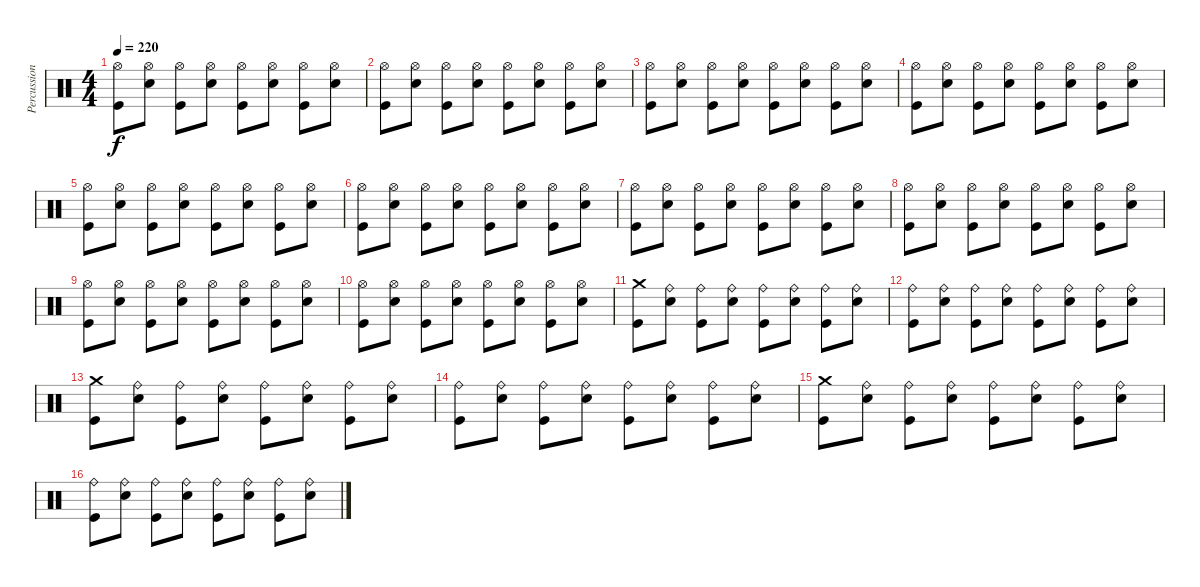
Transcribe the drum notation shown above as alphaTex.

\track ("Percussions" "Percussion") {instrument percussion}
\staff {score}
\articulation defaults
\ts (4 4)
\tempo 220
\clef neutral
\ks c
("Kick (hit)" "Hi-Hat (open)").8{dy f} ("Electric Snare (hit)" "Hi-Hat (open)").8 ("Kick (hit)" "Hi-Hat (open)").8 ("Electric Snare (hit)" "Hi-Hat (open)").8 ("Kick (hit)" "Hi-Hat (open)").8 ("Electric Snare (hit)" "Hi-Hat (open)").8 ("Kick (hit)" "Hi-Hat (open)").8 ("Electric Snare (hit)" "Hi-Hat (open)").8 |
("Kick (hit)" "Hi-Hat (open)").8 ("Electric Snare (hit)" "Hi-Hat (open)").8 ("Kick (hit)" "Hi-Hat (open)").8 ("Electric Snare (hit)" "Hi-Hat (open)").8 ("Kick (hit)" "Hi-Hat (open)").8 ("Electric Snare (hit)" "Hi-Hat (open)").8 ("Kick (hit)" "Hi-Hat (open)").8 ("Electric Snare (hit)" "Hi-Hat (open)").8 |
("Kick (hit)" "Hi-Hat (open)").8 ("Electric Snare (hit)" "Hi-Hat (open)").8 ("Kick (hit)" "Hi-Hat (open)").8 ("Electric Snare (hit)" "Hi-Hat (open)").8 ("Kick (hit)" "Hi-Hat (open)").8 ("Electric Snare (hit)" "Hi-Hat (open)").8 ("Kick (hit)" "Hi-Hat (open)").8 ("Electric Snare (hit)" "Hi-Hat (open)").8 |
("Kick (hit)" "Hi-Hat (open)").8 ("Electric Snare (hit)" "Hi-Hat (open)").8 ("Kick (hit)" "Hi-Hat (open)").8 ("Electric Snare (hit)" "Hi-Hat (open)").8 ("Kick (hit)" "Hi-Hat (open)").8 ("Electric Snare (hit)" "Hi-Hat (open)").8 ("Kick (hit)" "Hi-Hat (open)").8 ("Electric Snare (hit)" "Hi-Hat (open)").8 |
("Kick (hit)" "Hi-Hat (open)").8 ("Electric Snare (hit)" "Hi-Hat (open)").8 ("Kick (hit)" "Hi-Hat (open)").8 ("Electric Snare (hit)" "Hi-Hat (open)").8 ("Kick (hit)" "Hi-Hat (open)").8 ("Electric Snare (hit)" "Hi-Hat (open)").8 ("Kick (hit)" "Hi-Hat (open)").8 ("Electric Snare (hit)" "Hi-Hat (open)").8 |
("Kick (hit)" "Hi-Hat (open)").8 ("Electric Snare (hit)" "Hi-Hat (open)").8 ("Kick (hit)" "Hi-Hat (open)").8 ("Electric Snare (hit)" "Hi-Hat (open)").8 ("Kick (hit)" "Hi-Hat (open)").8 ("Electric Snare (hit)" "Hi-Hat (open)").8 ("Kick (hit)" "Hi-Hat (open)").8 ("Electric Snare (hit)" "Hi-Hat (open)").8 |
("Kick (hit)" "Hi-Hat (open)").8 ("Electric Snare (hit)" "Hi-Hat (open)").8 ("Kick (hit)" "Hi-Hat (open)").8 ("Electric Snare (hit)" "Hi-Hat (open)").8 ("Kick (hit)" "Hi-Hat (open)").8 ("Electric Snare (hit)" "Hi-Hat (open)").8 ("Kick (hit)" "Hi-Hat (open)").8 ("Electric Snare (hit)" "Hi-Hat (open)").8 |
("Kick (hit)" "Hi-Hat (open)").8 ("Electric Snare (hit)" "Hi-Hat (open)").8 ("Kick (hit)" "Hi-Hat (open)").8 ("Electric Snare (hit)" "Hi-Hat (open)").8 ("Kick (hit)" "Hi-Hat (open)").8 ("Electric Snare (hit)" "Hi-Hat (open)").8 ("Kick (hit)" "Hi-Hat (open)").8 ("Electric Snare (hit)" "Hi-Hat (open)").8 |
("Kick (hit)" "Hi-Hat (open)").8 ("Electric Snare (hit)" "Hi-Hat (open)").8 ("Kick (hit)" "Hi-Hat (open)").8 ("Electric Snare (hit)" "Hi-Hat (open)").8 ("Kick (hit)" "Hi-Hat (open)").8 ("Electric Snare (hit)" "Hi-Hat (open)").8 ("Kick (hit)" "Hi-Hat (open)").8 ("Electric Snare (hit)" "Hi-Hat (open)").8 |
("Kick (hit)" "Hi-Hat (open)").8 ("Electric Snare (hit)" "Hi-Hat (open)").8 ("Kick (hit)" "Hi-Hat (open)").8 ("Electric Snare (hit)" "Hi-Hat (open)").8 ("Kick (hit)" "Hi-Hat (open)").8 ("Electric Snare (hit)" "Hi-Hat (open)").8 ("Kick (hit)" "Hi-Hat (open)").8 ("Electric Snare (hit)" "Hi-Hat (open)").8 |
("Kick (hit)" "Crash medium (hit)").8 ("Electric Snare (hit)" "Ride (bell)").8 ("Kick (hit)" "Ride (bell)").8 ("Electric Snare (hit)" "Ride (bell)").8 ("Kick (hit)" "Ride (bell)").8 ("Electric Snare (hit)" "Ride (bell)").8 ("Kick (hit)" "Ride (bell)").8 ("Electric Snare (hit)" "Ride (bell)").8 |
("Kick (hit)" "Ride (bell)").8 ("Electric Snare (hit)" "Ride (bell)").8 ("Kick (hit)" "Ride (bell)").8 ("Electric Snare (hit)" "Ride (bell)").8 ("Kick (hit)" "Ride (bell)").8 ("Electric Snare (hit)" "Ride (bell)").8 ("Kick (hit)" "Ride (bell)").8 ("Electric Snare (hit)" "Ride (bell)").8 |
("Kick (hit)" "Crash medium (hit)").8 ("Electric Snare (hit)" "Ride (bell)").8 ("Kick (hit)" "Ride (bell)").8 ("Electric Snare (hit)" "Ride (bell)").8 ("Kick (hit)" "Ride (bell)").8 ("Electric Snare (hit)" "Ride (bell)").8 ("Kick (hit)" "Ride (bell)").8 ("Electric Snare (hit)" "Ride (bell)").8 |
("Kick (hit)" "Ride (bell)").8 ("Electric Snare (hit)" "Ride (bell)").8 ("Kick (hit)" "Ride (bell)").8 ("Electric Snare (hit)" "Ride (bell)").8 ("Kick (hit)" "Ride (bell)").8 ("Electric Snare (hit)" "Ride (bell)").8 ("Kick (hit)" "Ride (bell)").8 ("Electric Snare (hit)" "Ride (bell)").8 |
("Kick (hit)" "Crash medium (hit)").8 ("Electric Snare (hit)" "Ride (bell)").8 ("Kick (hit)" "Ride (bell)").8 ("Electric Snare (hit)" "Ride (bell)").8 ("Kick (hit)" "Ride (bell)").8 ("Electric Snare (hit)" "Ride (bell)").8 ("Kick (hit)" "Ride (bell)").8 ("Electric Snare (hit)" "Ride (bell)").8 |
("Kick (hit)" "Ride (bell)").8 ("Electric Snare (hit)" "Ride (bell)").8 ("Kick (hit)" "Ride (bell)").8 ("Electric Snare (hit)" "Ride (bell)").8 ("Kick (hit)" "Ride (bell)").8 ("Electric Snare (hit)" "Ride (bell)").8 ("Kick (hit)" "Ride (bell)").8 ("Electric Snare (hit)" "Ride (bell)").8
